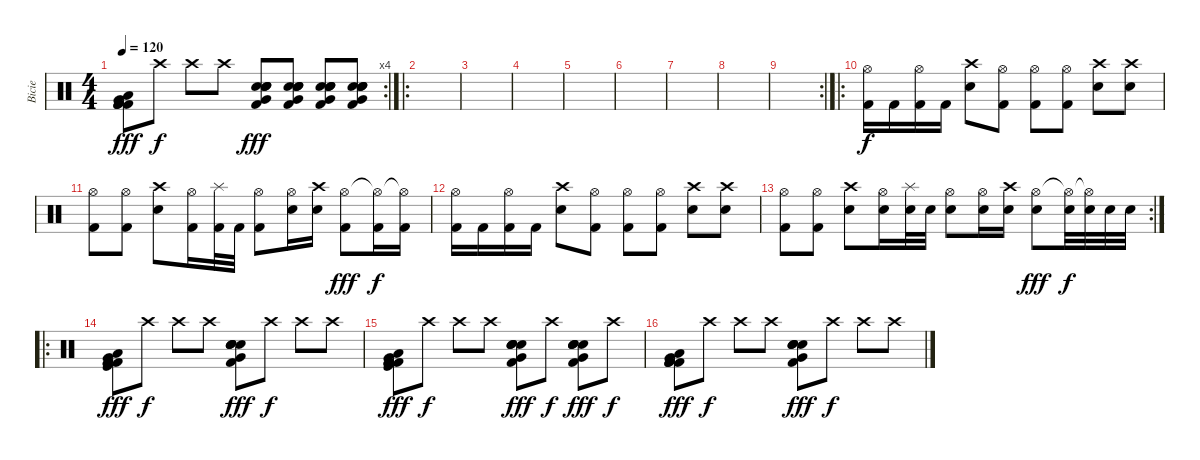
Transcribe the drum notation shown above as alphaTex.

\track ("Bicie" "Bicie") {instrument percussion}
\staff {score}
\articulation defaults
\rc 4
\ts (4 4)
\tempo 120
\clef neutral
\ks c
("Very Low Tom (hit)" "Kick (hit) 2" "Kick (hit) 2" "Kick (hit) 2" "Kick (hit) 2" "Low Floor Tom (hit)").8{dy fff} "Crash high (hit)".8{dy f} "Crash high (hit)".8 "Crash high (hit)".8 ("Very Low Tom (hit)" "Electric Snare (hit)" "Electric Snare (hit)" "Electric Snare (hit)" "Electric Snare (hit)" "Kick (hit) 2").8{dy fff} ("Very Low Tom (hit)" "Electric Snare (hit)" "Electric Snare (hit)" "Electric Snare (hit)" "Electric Snare (hit)" "Kick (hit) 2").8 ("Very Low Tom (hit)" "Electric Snare (hit)" "Electric Snare (hit)" "Electric Snare (hit)" "Electric Snare (hit)" "Kick (hit) 2").8 ("Very Low Tom (hit)" "Electric Snare (hit)" "Electric Snare (hit)" "Electric Snare (hit)" "Electric Snare (hit)" "Kick (hit) 2").8 |
\ro
|
|
|
|
|
|
|
\rc 2
|
\ro
("Hi-Hat (open)" "Kick (hit) 2").16{dy f} "Kick (hit) 2".16 ("Hi-Hat (open)" "Kick (hit) 2").16 "Kick (hit) 2".16 ("Crash high (hit)" "Snare (hit) 2").8 ("Hi-Hat (open)" "Kick (hit) 2").8 ("Hi-Hat (open)" "Kick (hit) 2").8 ("Hi-Hat (open)" "Kick (hit) 2").8 ("Crash high (hit)" "Snare (hit) 2").8 ("Crash high (hit)" "Snare (hit) 2").8 |
("Hi-Hat (open)" "Kick (hit) 2").8 ("Hi-Hat (open)" "Kick (hit) 2").8 ("Crash high (hit)" "Snare (hit) 2").8 ("Hi-Hat (open)" "Kick (hit) 2").16 ("Splash (hit)" "Kick (hit) 2").32 "Kick (hit) 2".32 ("Hi-Hat (open)" "Kick (hit) 2").8 ("Hi-Hat (open)" "Snare (hit) 2").16 ("Crash high (hit)" "Snare (hit) 2").16 ("Hi-Hat (open)" "Kick (hit) 2").8{dy fff} ("Hi-Hat (open)"{t} "Kick (hit) 2").16{dy f} ("Hi-Hat (open)"{t} "Kick (hit) 2").16 |
("Hi-Hat (open)" "Kick (hit) 2").16 "Kick (hit) 2".16 ("Hi-Hat (open)" "Kick (hit) 2").16 "Kick (hit) 2".16 ("Crash high (hit)" "Snare (hit) 2").8 ("Hi-Hat (open)" "Kick (hit) 2").8 ("Hi-Hat (open)" "Kick (hit) 2").8 ("Hi-Hat (open)" "Kick (hit) 2").8 ("Crash high (hit)" "Snare (hit) 2").8 ("Crash high (hit)" "Snare (hit) 2").8 |
\rc 2
("Hi-Hat (open)" "Kick (hit) 2").8 ("Hi-Hat (open)" "Kick (hit) 2").8 ("Crash high (hit)" "Snare (hit) 2").8 ("Hi-Hat (open)" "Snare (hit) 2").16 ("Splash (hit)" "Snare (hit) 2").32 "Snare (hit) 2".32 ("Hi-Hat (open)" "Snare (hit) 2").8 ("Hi-Hat (open)" "Snare (hit) 2").16 ("Crash high (hit)" "Snare (hit) 2").16 ("Hi-Hat (open)" "Snare (hit) 2").8{dy fff} ("Hi-Hat (open)"{t} "Snare (hit) 2").32{dy f} ("Hi-Hat (open)"{t} "Snare (hit) 2").32 "Snare (hit) 2".32 "Snare (hit) 2".32 |
\ro
("Very Low Tom (hit)" "Kick (hit)" "Kick (hit) 2" "Kick (hit) 2" "Kick (hit) 2" "Low Floor Tom (hit)").8{dy fff} "Crash high (hit)".8{dy f} "Crash high (hit)".8 "Crash high (hit)".8 ("Very Low Tom (hit)" "Electric Snare (hit)" "Electric Snare (hit)" "Electric Snare (hit)" "Electric Snare (hit)" "Kick (hit) 2").8{dy fff} "Crash high (hit)".8{dy f} "Crash high (hit)".8 "Crash high (hit)".8 |
("Very Low Tom (hit)" "Kick (hit)" "Kick (hit) 2" "Kick (hit) 2" "Kick (hit) 2" "Low Floor Tom (hit)").8{dy fff} "Crash high (hit)".8{dy f} "Crash high (hit)".8 "Crash high (hit)".8 ("Very Low Tom (hit)" "Electric Snare (hit)" "Electric Snare (hit)" "Electric Snare (hit)" "Electric Snare (hit)" "Kick (hit) 2").8{dy fff} "Crash high (hit)".8{dy f} ("Very Low Tom (hit)" "Electric Snare (hit)" "Electric Snare (hit)" "Electric Snare (hit)" "Electric Snare (hit)" "Kick (hit) 2").8{dy fff} "Crash high (hit)".8{dy f} |
("Very Low Tom (hit)" "Kick (hit) 2" "Kick (hit) 2" "Kick (hit) 2" "Kick (hit) 2" "Low Floor Tom (hit)").8{dy fff} "Crash high (hit)".8{dy f} "Crash high (hit)".8 "Crash high (hit)".8 ("Very Low Tom (hit)" "Electric Snare (hit)" "Electric Snare (hit)" "Electric Snare (hit)" "Electric Snare (hit)" "Kick (hit) 2").8{dy fff} "Crash high (hit)".8{dy f} "Crash high (hit)".8 "Crash high (hit)".8
